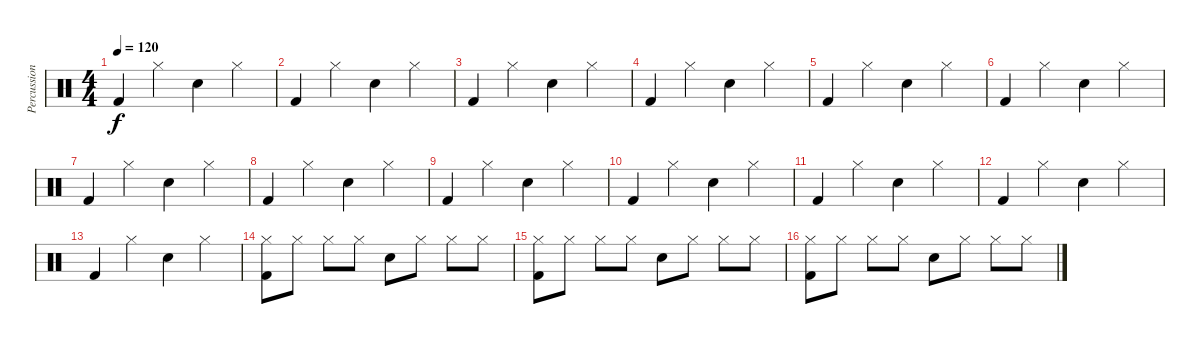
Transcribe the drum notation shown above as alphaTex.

\track ("Percussions" "Percussion") {instrument percussion}
\staff {score}
\articulation defaults
\ts (4 4)
\tempo 120
\clef neutral
\ks c "Kick (hit) 2".4{dy f} "Hi-Hat (closed)".4 "Electric Snare (hit)".4 "Hi-Hat (closed)".4
|
"Kick (hit) 2".4 "Hi-Hat (closed)".4 "Electric Snare (hit)".4 "Hi-Hat (closed)".4 |
"Kick (hit) 2".4 "Hi-Hat (closed)".4 "Electric Snare (hit)".4 "Hi-Hat (closed)".4 |
"Kick (hit) 2".4 "Hi-Hat (closed)".4 "Electric Snare (hit)".4 "Hi-Hat (closed)".4 |
"Kick (hit) 2".4 "Hi-Hat (closed)".4 "Electric Snare (hit)".4 "Hi-Hat (closed)".4 |
"Kick (hit) 2".4 "Hi-Hat (closed)".4 "Electric Snare (hit)".4 "Hi-Hat (closed)".4 |
"Kick (hit) 2".4 "Hi-Hat (closed)".4 "Electric Snare (hit)".4 "Hi-Hat (closed)".4 |
"Kick (hit) 2".4 "Hi-Hat (closed)".4 "Electric Snare (hit)".4 "Hi-Hat (closed)".4 |
"Kick (hit) 2".4 "Hi-Hat (closed)".4 "Electric Snare (hit)".4 "Hi-Hat (closed)".4 |
"Kick (hit) 2".4 "Hi-Hat (closed)".4 "Electric Snare (hit)".4 "Hi-Hat (closed)".4 |
"Kick (hit) 2".4 "Hi-Hat (closed)".4 "Electric Snare (hit)".4 "Hi-Hat (closed)".4 |
"Kick (hit) 2".4 "Hi-Hat (closed)".4 "Electric Snare (hit)".4 "Hi-Hat (closed)".4 |
"Kick (hit) 2".4 "Hi-Hat (closed)".4 "Electric Snare (hit)".4 "Hi-Hat (closed)".4 |
("Hi-Hat (closed)" "Kick (hit) 2").8 "Hi-Hat (closed)".8 "Hi-Hat (closed)".8 "Hi-Hat (closed)".8 "Electric Snare (hit)".8 "Hi-Hat (closed)".8 "Hi-Hat (closed)".8 "Hi-Hat (closed)".8 |
("Hi-Hat (closed)" "Kick (hit) 2").8 "Hi-Hat (closed)".8 "Hi-Hat (closed)".8 "Hi-Hat (closed)".8 "Electric Snare (hit)".8 "Hi-Hat (closed)".8 "Hi-Hat (closed)".8 "Hi-Hat (closed)".8 |
("Hi-Hat (closed)" "Kick (hit) 2").8 "Hi-Hat (closed)".8 "Hi-Hat (closed)".8 "Hi-Hat (closed)".8 "Electric Snare (hit)".8 "Hi-Hat (closed)".8 "Hi-Hat (closed)".8 "Hi-Hat (closed)".8
